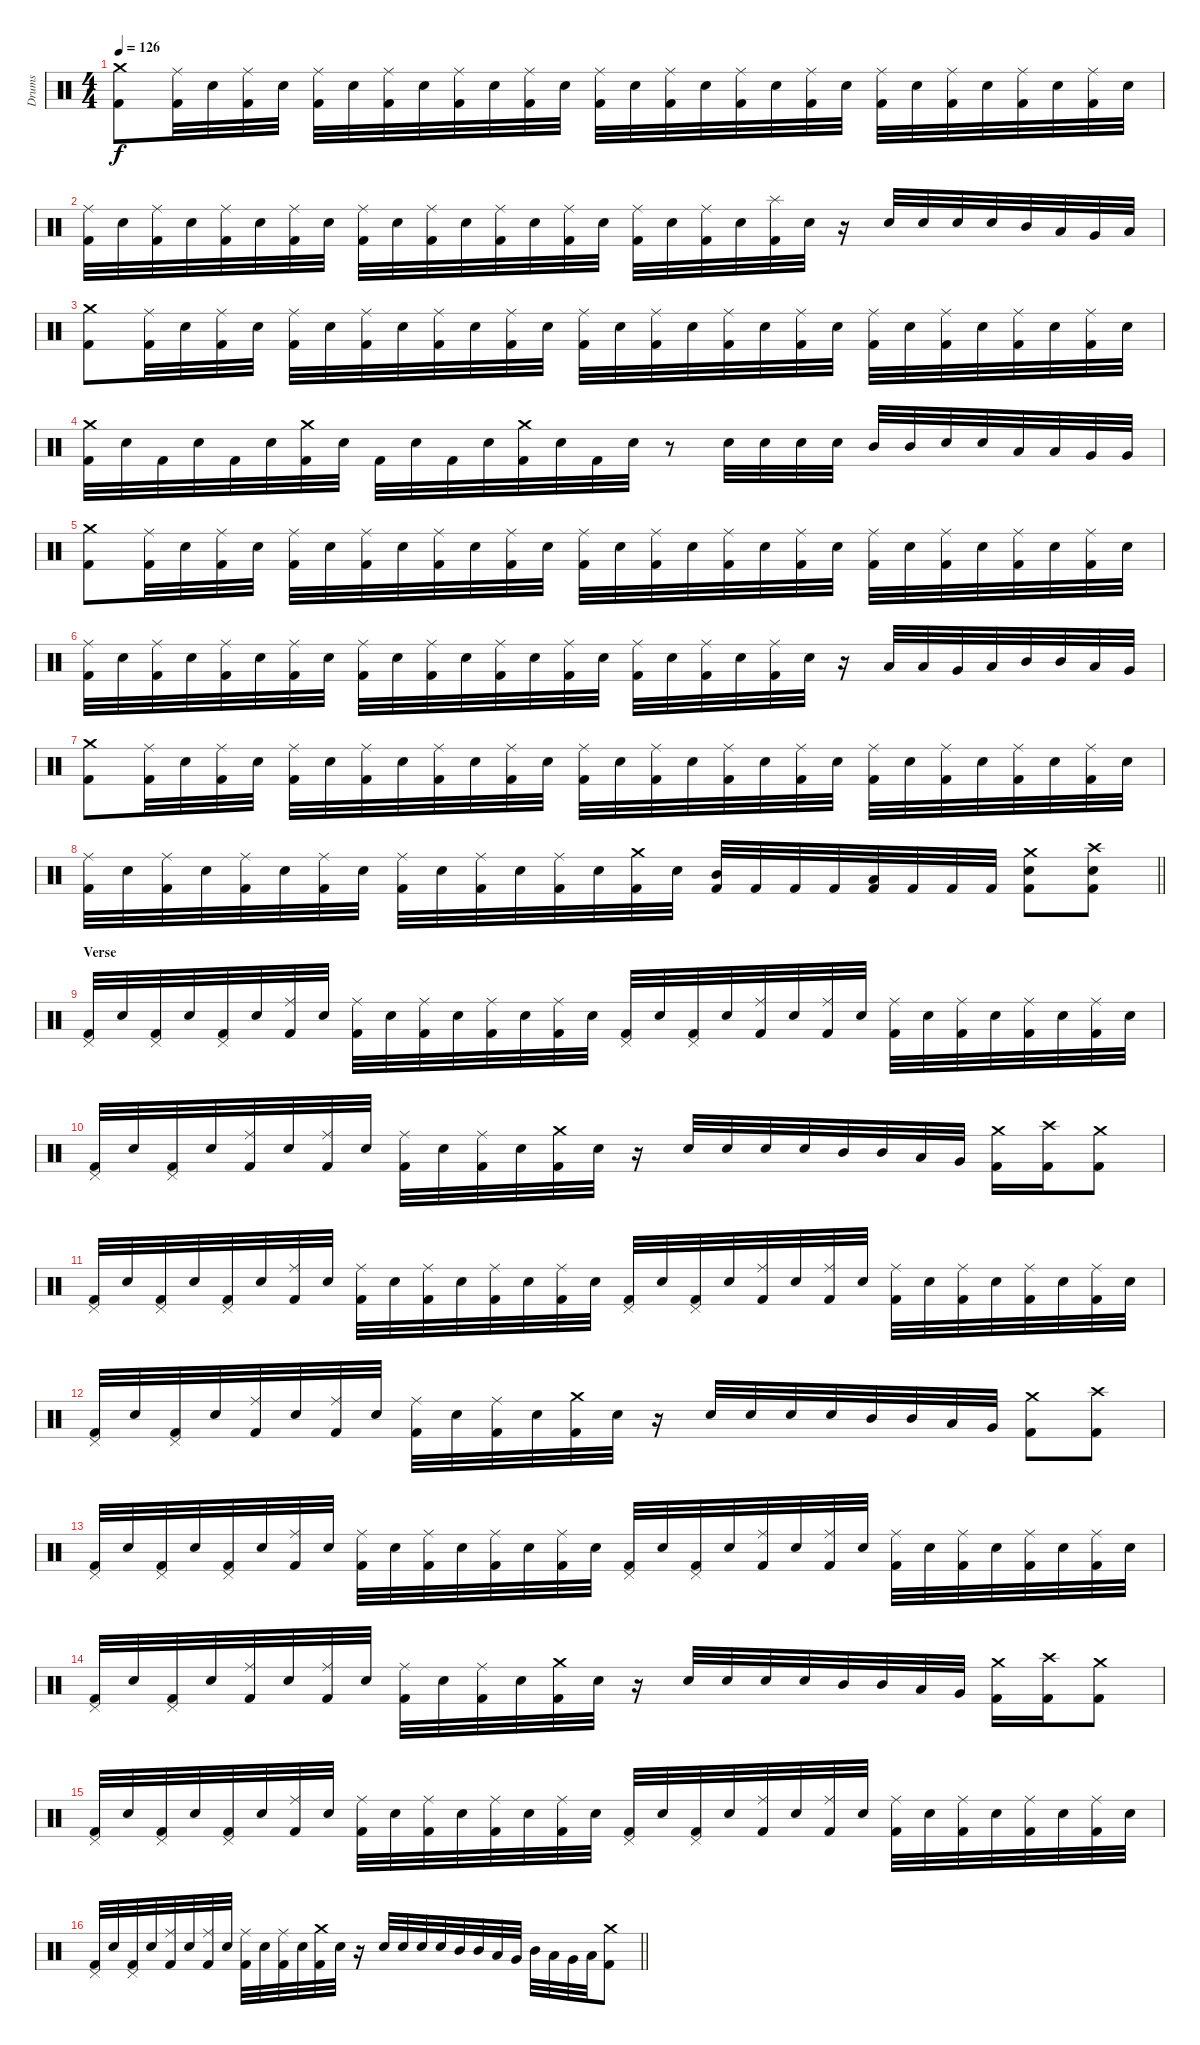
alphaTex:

\track ("Drums" "Drums") {instrument percussion}
\staff {score}
\articulation defaults
\ts (4 4)
\section ("" "")
\tempo 126
\clef neutral
\ks c
("Crash medium (hit)" "Kick (hit) 2").8{dy f} ("Ride (middle)" "Kick (hit) 2").32 "Electric Snare (hit)".32 ("Ride (middle)" "Kick (hit) 2").32 "Electric Snare (hit)".32 ("Ride (middle)" "Kick (hit) 2").32 "Electric Snare (hit)".32 ("Ride (middle)" "Kick (hit) 2").32 "Electric Snare (hit)".32 ("Ride (middle)" "Kick (hit) 2").32 "Electric Snare (hit)".32 ("Ride (middle)" "Kick (hit) 2").32 "Electric Snare (hit)".32 ("Ride (middle)" "Kick (hit) 2").32 "Electric Snare (hit)".32 ("Ride (middle)" "Kick (hit) 2").32 "Electric Snare (hit)".32 ("Ride (middle)" "Kick (hit) 2").32 "Electric Snare (hit)".32 ("Ride (middle)" "Kick (hit) 2").32 "Electric Snare (hit)".32 ("Ride (middle)" "Kick (hit) 2").32 "Electric Snare (hit)".32 ("Ride (middle)" "Kick (hit) 2").32 "Electric Snare (hit)".32 ("Ride (middle)" "Kick (hit) 2").32 "Electric Snare (hit)".32 ("Ride (middle)" "Kick (hit) 2").32 "Electric Snare (hit)".32 |
("Ride (middle)" "Kick (hit) 2").32 "Electric Snare (hit)".32 ("Ride (middle)" "Kick (hit) 2").32 "Electric Snare (hit)".32 ("Ride (middle)" "Kick (hit) 2").32 "Electric Snare (hit)".32 ("Ride (middle)" "Kick (hit) 2").32 "Electric Snare (hit)".32 ("Ride (middle)" "Kick (hit) 2").32 "Electric Snare (hit)".32 ("Ride (middle)" "Kick (hit) 2").32 "Electric Snare (hit)".32 ("Ride (middle)" "Kick (hit) 2").32 "Electric Snare (hit)".32 ("Ride (middle)" "Kick (hit) 2").32 "Electric Snare (hit)".32 ("Ride (middle)" "Kick (hit) 2").32 "Electric Snare (hit)".32 ("Ride (middle)" "Kick (hit) 2").32 "Electric Snare (hit)".32 ("Splash (hit)" "Kick (hit) 2").32 "Electric Snare (hit)".32 r.16 "Electric Snare (hit)".32 "Electric Snare (hit)".32 "Electric Snare (hit)".32 "Electric Snare (hit)".32 "Mid Tom (hit)".32 "Low Tom (hit)".32 "Very Low Tom (hit)".32 "Low Floor Tom (hit)".32 |
("Crash medium (hit)" "Kick (hit) 2").8 ("Ride (middle)" "Kick (hit) 2").32 "Electric Snare (hit)".32 ("Ride (middle)" "Kick (hit) 2").32 "Electric Snare (hit)".32 ("Ride (middle)" "Kick (hit) 2").32 "Electric Snare (hit)".32 ("Ride (middle)" "Kick (hit) 2").32 "Electric Snare (hit)".32 ("Ride (middle)" "Kick (hit) 2").32 "Electric Snare (hit)".32 ("Ride (middle)" "Kick (hit) 2").32 "Electric Snare (hit)".32 ("Ride (middle)" "Kick (hit) 2").32 "Electric Snare (hit)".32 ("Ride (middle)" "Kick (hit) 2").32 "Electric Snare (hit)".32 ("Ride (middle)" "Kick (hit) 2").32 "Electric Snare (hit)".32 ("Ride (middle)" "Kick (hit) 2").32 "Electric Snare (hit)".32 ("Ride (middle)" "Kick (hit) 2").32 "Electric Snare (hit)".32 ("Ride (middle)" "Kick (hit) 2").32 "Electric Snare (hit)".32 ("Ride (middle)" "Kick (hit) 2").32 "Electric Snare (hit)".32 ("Ride (middle)" "Kick (hit) 2").32 "Electric Snare (hit)".32 |
("Crash medium (hit)" "Kick (hit) 2").32 "Electric Snare (hit)".32 "Kick (hit) 2".32 "Electric Snare (hit)".32 "Kick (hit) 2".32 "Electric Snare (hit)".32 ("Crash medium (hit)" "Kick (hit) 2").32 "Electric Snare (hit)".32 "Kick (hit) 2".32 "Electric Snare (hit)".32 "Kick (hit) 2".32 "Electric Snare (hit)".32 ("Crash medium (hit)" "Kick (hit) 2").32 "Electric Snare (hit)".32 "Kick (hit) 2".32 "Electric Snare (hit)".32 r.8 "Electric Snare (hit)".32 "Electric Snare (hit)".32 "Electric Snare (hit)".32 "Electric Snare (hit)".32 "Mid Tom (hit)".32 "Mid Tom (hit)".32 "Electric Snare (hit)".32 "Electric Snare (hit)".32 "Low Tom (hit)".32 "Low Tom (hit)".32 "Very Low Tom (hit)".32 "Very Low Tom (hit)".32 |
("Crash medium (hit)" "Kick (hit) 2").8 ("Ride (middle)" "Kick (hit) 2").32 "Electric Snare (hit)".32 ("Ride (middle)" "Kick (hit) 2").32 "Electric Snare (hit)".32 ("Ride (middle)" "Kick (hit) 2").32 "Electric Snare (hit)".32 ("Ride (middle)" "Kick (hit) 2").32 "Electric Snare (hit)".32 ("Ride (middle)" "Kick (hit) 2").32 "Electric Snare (hit)".32 ("Ride (middle)" "Kick (hit) 2").32 "Electric Snare (hit)".32 ("Ride (middle)" "Kick (hit) 2").32 "Electric Snare (hit)".32 ("Ride (middle)" "Kick (hit) 2").32 "Electric Snare (hit)".32 ("Ride (middle)" "Kick (hit) 2").32 "Electric Snare (hit)".32 ("Ride (middle)" "Kick (hit) 2").32 "Electric Snare (hit)".32 ("Ride (middle)" "Kick (hit) 2").32 "Electric Snare (hit)".32 ("Ride (middle)" "Kick (hit) 2").32 "Electric Snare (hit)".32 ("Ride (middle)" "Kick (hit) 2").32 "Electric Snare (hit)".32 ("Ride (middle)" "Kick (hit) 2").32 "Electric Snare (hit)".32 |
("Ride (middle)" "Kick (hit) 2").32 "Electric Snare (hit)".32 ("Ride (middle)" "Kick (hit) 2").32 "Electric Snare (hit)".32 ("Ride (middle)" "Kick (hit) 2").32 "Electric Snare (hit)".32 ("Ride (middle)" "Kick (hit) 2").32 "Electric Snare (hit)".32 ("Ride (middle)" "Kick (hit) 2").32 "Electric Snare (hit)".32 ("Ride (middle)" "Kick (hit) 2").32 "Electric Snare (hit)".32 ("Ride (middle)" "Kick (hit) 2").32 "Electric Snare (hit)".32 ("Ride (middle)" "Kick (hit) 2").32 "Electric Snare (hit)".32 ("Ride (middle)" "Kick (hit) 2").32 "Electric Snare (hit)".32 ("Ride (middle)" "Kick (hit) 2").32 "Electric Snare (hit)".32 ("Ride (middle)" "Kick (hit) 2").32 "Electric Snare (hit)".32 r.16 "Low Tom (hit)".32 "Low Tom (hit)".32 "Very Low Tom (hit)".32 "Low Floor Tom (hit)".32 "Mid Tom (hit)".32 "Mid Tom (hit)".32 "Low Tom (hit)".32 "Very Low Tom (hit)".32 |
("Crash medium (hit)" "Kick (hit) 2").8 ("Ride (middle)" "Kick (hit) 2").32 "Electric Snare (hit)".32 ("Ride (middle)" "Kick (hit) 2").32 "Electric Snare (hit)".32 ("Ride (middle)" "Kick (hit) 2").32 "Electric Snare (hit)".32 ("Ride (middle)" "Kick (hit) 2").32 "Electric Snare (hit)".32 ("Ride (middle)" "Kick (hit) 2").32 "Electric Snare (hit)".32 ("Ride (middle)" "Kick (hit) 2").32 "Electric Snare (hit)".32 ("Ride (middle)" "Kick (hit) 2").32 "Electric Snare (hit)".32 ("Ride (middle)" "Kick (hit) 2").32 "Electric Snare (hit)".32 ("Ride (middle)" "Kick (hit) 2").32 "Electric Snare (hit)".32 ("Ride (middle)" "Kick (hit) 2").32 "Electric Snare (hit)".32 ("Ride (middle)" "Kick (hit) 2").32 "Electric Snare (hit)".32 ("Ride (middle)" "Kick (hit) 2").32 "Electric Snare (hit)".32 ("Ride (middle)" "Kick (hit) 2").32 "Electric Snare (hit)".32 ("Ride (middle)" "Kick (hit) 2").32 "Electric Snare (hit)".32 |
\barLineRight lightlight
("Ride (middle)" "Kick (hit) 2").32 "Electric Snare (hit)".32 ("Ride (middle)" "Kick (hit) 2").32 "Electric Snare (hit)".32 ("Ride (middle)" "Kick (hit) 2").32 "Electric Snare (hit)".32 ("Ride (middle)" "Kick (hit) 2").32 "Electric Snare (hit)".32 ("Ride (middle)" "Kick (hit) 2").32 "Electric Snare (hit)".32 ("Ride (middle)" "Kick (hit) 2").32 "Electric Snare (hit)".32 ("Ride (middle)" "Kick (hit) 2").32 "Electric Snare (hit)".32 ("Crash medium (hit)" "Kick (hit) 2").32 "Electric Snare (hit)".32 ("Mid Tom (hit)" "Kick (hit) 2").32 "Kick (hit) 2".32 "Kick (hit) 2".32 "Kick (hit) 2".32 ("Low Tom (hit)" "Kick (hit) 2").32 "Kick (hit) 2".32 "Kick (hit) 2".32 "Kick (hit) 2".32 ("Crash medium (hit)" "Electric Snare (hit)" "Kick (hit) 2").8 ("Crash high (hit)" "Electric Snare (hit)" "Kick (hit) 2").8 |
\section ("" "Verse")
("Pedal Hi-Hat (hit)" "Kick (hit) 2").32 "Electric Snare (hit)".32 ("Pedal Hi-Hat (hit)" "Kick (hit) 2").32 "Electric Snare (hit)".32 ("Pedal Hi-Hat (hit)" "Kick (hit) 2").32 "Electric Snare (hit)".32 ("Ride (middle)" "Kick (hit) 2").32 "Electric Snare (hit)".32 ("Ride (middle)" "Kick (hit) 2").32 "Electric Snare (hit)".32 ("Ride (middle)" "Kick (hit) 2").32 "Electric Snare (hit)".32 ("Ride (middle)" "Kick (hit) 2").32 "Electric Snare (hit)".32 ("Ride (middle)" "Kick (hit) 2").32 "Electric Snare (hit)".32 ("Pedal Hi-Hat (hit)" "Kick (hit) 2").32 "Electric Snare (hit)".32 ("Pedal Hi-Hat (hit)" "Kick (hit) 2").32 "Electric Snare (hit)".32 ("Ride (middle)" "Kick (hit) 2").32 "Electric Snare (hit)".32 ("Ride (middle)" "Kick (hit) 2").32 "Electric Snare (hit)".32 ("Ride (middle)" "Kick (hit) 2").32 "Electric Snare (hit)".32 ("Ride (middle)" "Kick (hit) 2").32 "Electric Snare (hit)".32 ("Ride (middle)" "Kick (hit) 2").32 "Electric Snare (hit)".32 ("Ride (middle)" "Kick (hit) 2").32 "Electric Snare (hit)".32 |
("Pedal Hi-Hat (hit)" "Kick (hit) 2").32 "Electric Snare (hit)".32 ("Pedal Hi-Hat (hit)" "Kick (hit) 2").32 "Electric Snare (hit)".32 ("Ride (middle)" "Kick (hit) 2").32 "Electric Snare (hit)".32 ("Ride (middle)" "Kick (hit) 2").32 "Electric Snare (hit)".32 ("Ride (middle)" "Kick (hit) 2").32 "Electric Snare (hit)".32 ("Ride (middle)" "Kick (hit) 2").32 "Electric Snare (hit)".32 ("Crash medium (hit)" "Kick (hit) 2").32 "Electric Snare (hit)".32 r.16 "Electric Snare (hit)".32 "Electric Snare (hit)".32 "Electric Snare (hit)".32 "Electric Snare (hit)".32 "Mid Tom (hit)".32 "Mid Tom (hit)".32 "Low Tom (hit)".32 "Very Low Tom (hit)".32 ("Crash medium (hit)" "Kick (hit) 2").16 ("Crash high (hit)" "Kick (hit) 2").16 ("Crash medium (hit)" "Kick (hit) 2").8 |
("Pedal Hi-Hat (hit)" "Kick (hit) 2").32 "Electric Snare (hit)".32 ("Pedal Hi-Hat (hit)" "Kick (hit) 2").32 "Electric Snare (hit)".32 ("Pedal Hi-Hat (hit)" "Kick (hit) 2").32 "Electric Snare (hit)".32 ("Ride (middle)" "Kick (hit) 2").32 "Electric Snare (hit)".32 ("Ride (middle)" "Kick (hit) 2").32 "Electric Snare (hit)".32 ("Ride (middle)" "Kick (hit) 2").32 "Electric Snare (hit)".32 ("Ride (middle)" "Kick (hit) 2").32 "Electric Snare (hit)".32 ("Ride (middle)" "Kick (hit) 2").32 "Electric Snare (hit)".32 ("Pedal Hi-Hat (hit)" "Kick (hit) 2").32 "Electric Snare (hit)".32 ("Pedal Hi-Hat (hit)" "Kick (hit) 2").32 "Electric Snare (hit)".32 ("Ride (middle)" "Kick (hit) 2").32 "Electric Snare (hit)".32 ("Ride (middle)" "Kick (hit) 2").32 "Electric Snare (hit)".32 ("Ride (middle)" "Kick (hit) 2").32 "Electric Snare (hit)".32 ("Ride (middle)" "Kick (hit) 2").32 "Electric Snare (hit)".32 ("Ride (middle)" "Kick (hit) 2").32 "Electric Snare (hit)".32 ("Ride (middle)" "Kick (hit) 2").32 "Electric Snare (hit)".32 |
("Pedal Hi-Hat (hit)" "Kick (hit) 2").32 "Electric Snare (hit)".32 ("Pedal Hi-Hat (hit)" "Kick (hit) 2").32 "Electric Snare (hit)".32 ("Ride (middle)" "Kick (hit) 2").32 "Electric Snare (hit)".32 ("Ride (middle)" "Kick (hit) 2").32 "Electric Snare (hit)".32 ("Ride (middle)" "Kick (hit) 2").32 "Electric Snare (hit)".32 ("Ride (middle)" "Kick (hit) 2").32 "Electric Snare (hit)".32 ("Crash medium (hit)" "Kick (hit) 2").32 "Electric Snare (hit)".32 r.16 "Electric Snare (hit)".32 "Electric Snare (hit)".32 "Electric Snare (hit)".32 "Electric Snare (hit)".32 "Mid Tom (hit)".32 "Mid Tom (hit)".32 "Low Tom (hit)".32 "Very Low Tom (hit)".32 ("Crash medium (hit)" "Kick (hit) 2").8 ("Crash high (hit)" "Kick (hit) 2").8 |
("Pedal Hi-Hat (hit)" "Kick (hit) 2").32 "Electric Snare (hit)".32 ("Pedal Hi-Hat (hit)" "Kick (hit) 2").32 "Electric Snare (hit)".32 ("Pedal Hi-Hat (hit)" "Kick (hit) 2").32 "Electric Snare (hit)".32 ("Ride (middle)" "Kick (hit) 2").32 "Electric Snare (hit)".32 ("Ride (middle)" "Kick (hit) 2").32 "Electric Snare (hit)".32 ("Ride (middle)" "Kick (hit) 2").32 "Electric Snare (hit)".32 ("Ride (middle)" "Kick (hit) 2").32 "Electric Snare (hit)".32 ("Ride (middle)" "Kick (hit) 2").32 "Electric Snare (hit)".32 ("Pedal Hi-Hat (hit)" "Kick (hit) 2").32 "Electric Snare (hit)".32 ("Pedal Hi-Hat (hit)" "Kick (hit) 2").32 "Electric Snare (hit)".32 ("Ride (middle)" "Kick (hit) 2").32 "Electric Snare (hit)".32 ("Ride (middle)" "Kick (hit) 2").32 "Electric Snare (hit)".32 ("Ride (middle)" "Kick (hit) 2").32 "Electric Snare (hit)".32 ("Ride (middle)" "Kick (hit) 2").32 "Electric Snare (hit)".32 ("Ride (middle)" "Kick (hit) 2").32 "Electric Snare (hit)".32 ("Ride (middle)" "Kick (hit) 2").32 "Electric Snare (hit)".32 |
("Pedal Hi-Hat (hit)" "Kick (hit) 2").32 "Electric Snare (hit)".32 ("Pedal Hi-Hat (hit)" "Kick (hit) 2").32 "Electric Snare (hit)".32 ("Ride (middle)" "Kick (hit) 2").32 "Electric Snare (hit)".32 ("Ride (middle)" "Kick (hit) 2").32 "Electric Snare (hit)".32 ("Ride (middle)" "Kick (hit) 2").32 "Electric Snare (hit)".32 ("Ride (middle)" "Kick (hit) 2").32 "Electric Snare (hit)".32 ("Crash medium (hit)" "Kick (hit) 2").32 "Electric Snare (hit)".32 r.16 "Electric Snare (hit)".32 "Electric Snare (hit)".32 "Electric Snare (hit)".32 "Electric Snare (hit)".32 "Mid Tom (hit)".32 "Mid Tom (hit)".32 "Low Tom (hit)".32 "Very Low Tom (hit)".32 ("Crash medium (hit)" "Kick (hit) 2").16 ("Crash high (hit)" "Kick (hit) 2").16 ("Crash medium (hit)" "Kick (hit) 2").8 |
("Pedal Hi-Hat (hit)" "Kick (hit) 2").32 "Electric Snare (hit)".32 ("Pedal Hi-Hat (hit)" "Kick (hit) 2").32 "Electric Snare (hit)".32 ("Pedal Hi-Hat (hit)" "Kick (hit) 2").32 "Electric Snare (hit)".32 ("Ride (middle)" "Kick (hit) 2").32 "Electric Snare (hit)".32 ("Ride (middle)" "Kick (hit) 2").32 "Electric Snare (hit)".32 ("Ride (middle)" "Kick (hit) 2").32 "Electric Snare (hit)".32 ("Ride (middle)" "Kick (hit) 2").32 "Electric Snare (hit)".32 ("Ride (middle)" "Kick (hit) 2").32 "Electric Snare (hit)".32 ("Pedal Hi-Hat (hit)" "Kick (hit) 2").32 "Electric Snare (hit)".32 ("Pedal Hi-Hat (hit)" "Kick (hit) 2").32 "Electric Snare (hit)".32 ("Ride (middle)" "Kick (hit) 2").32 "Electric Snare (hit)".32 ("Ride (middle)" "Kick (hit) 2").32 "Electric Snare (hit)".32 ("Ride (middle)" "Kick (hit) 2").32 "Electric Snare (hit)".32 ("Ride (middle)" "Kick (hit) 2").32 "Electric Snare (hit)".32 ("Ride (middle)" "Kick (hit) 2").32 "Electric Snare (hit)".32 ("Ride (middle)" "Kick (hit) 2").32 "Electric Snare (hit)".32 |
\barLineRight lightlight
("Pedal Hi-Hat (hit)" "Kick (hit) 2").32 "Electric Snare (hit)".32 ("Pedal Hi-Hat (hit)" "Kick (hit) 2").32 "Electric Snare (hit)".32 ("Ride (middle)" "Kick (hit) 2").32 "Electric Snare (hit)".32 ("Ride (middle)" "Kick (hit) 2").32 "Electric Snare (hit)".32 ("Ride (middle)" "Kick (hit) 2").32 "Electric Snare (hit)".32 ("Ride (middle)" "Kick (hit) 2").32 "Electric Snare (hit)".32 ("Crash medium (hit)" "Kick (hit) 2").32 "Electric Snare (hit)".32 r.16 "Electric Snare (hit)".32 "Electric Snare (hit)".32 "Electric Snare (hit)".32 "Electric Snare (hit)".32 "Mid Tom (hit)".32 "Mid Tom (hit)".32 "Low Tom (hit)".32 "Very Low Tom (hit)".32 "Mid Tom (hit)".32 "Low Tom (hit)".32 "Very Low Tom (hit)".32 "Low Floor Tom (hit)".32 ("Crash medium (hit)" "Kick (hit) 2").8
